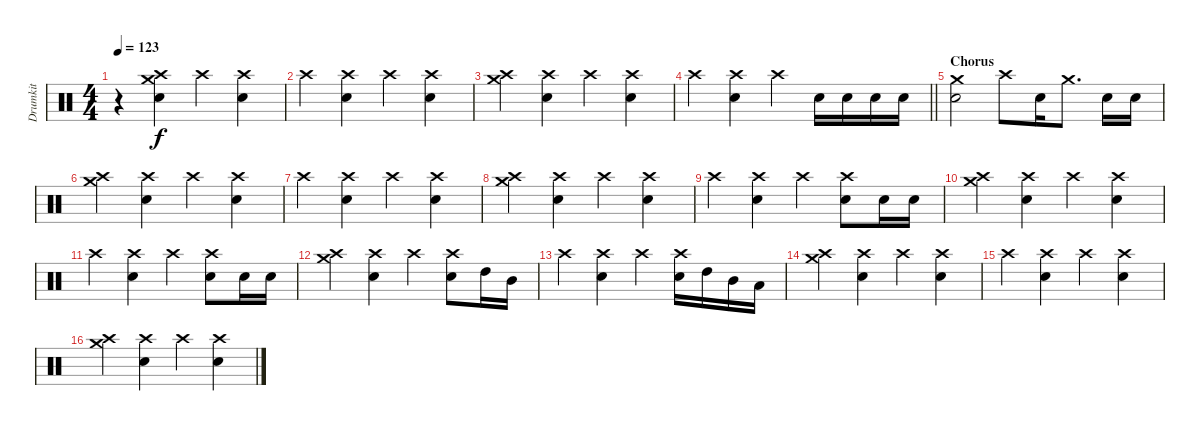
\track ("Drumkit" "Drumkit") {instrument percussion}
\staff {score}
\articulation defaults
\ts (4 4)
\tempo 123
\clef neutral
\ks c
r.4{dy f} ("Crash medium (hit)" "Crash high (hit)" "Electric Snare (hit)").4 "Crash high (hit)".4 ("Crash high (hit)" "Electric Snare (hit)").4 |
"Crash high (hit)".4 ("Crash high (hit)" "Electric Snare (hit)").4 "Crash high (hit)".4 ("Crash high (hit)" "Electric Snare (hit)").4 |
("Crash medium (hit)" "Crash high (hit)").4 ("Crash high (hit)" "Electric Snare (hit)").4 "Crash high (hit)".4 ("Crash high (hit)" "Electric Snare (hit)").4 |
\barLineRight lightlight "Crash high (hit)".4
("Crash high (hit)" "Electric Snare (hit)").4 "Crash high (hit)".4 "Electric Snare (hit)".16 "Electric Snare (hit)".16 "Electric Snare (hit)".16 "Electric Snare (hit)".16 |
\section ("" "Chorus")
("Crash medium (hit)" "Electric Snare (hit)").2 "Crash high (hit)".8 "Electric Snare (hit)".16 "Crash medium (hit)".8{d} "Electric Snare (hit)".16 "Electric Snare (hit)".16 |
("Crash medium (hit)" "Crash high (hit)").4 ("Crash high (hit)" "Electric Snare (hit)").4 "Crash high (hit)".4 ("Crash high (hit)" "Electric Snare (hit)").4 |
"Crash high (hit)".4 ("Crash high (hit)" "Electric Snare (hit)").4 "Crash high (hit)".4 ("Crash high (hit)" "Electric Snare (hit)").4 |
("Crash medium (hit)" "Crash high (hit)").4 ("Crash high (hit)" "Electric Snare (hit)").4 "Crash high (hit)".4 ("Crash high (hit)" "Electric Snare (hit)").4 |
"Crash high (hit)".4 ("Crash high (hit)" "Electric Snare (hit)").4 "Crash high (hit)".4 ("Crash high (hit)" "Electric Snare (hit)").8 "Electric Snare (hit)".16 "Electric Snare (hit)".16 |
("Crash medium (hit)" "Crash high (hit)").4 ("Crash high (hit)" "Electric Snare (hit)").4 "Crash high (hit)".4 ("Crash high (hit)" "Electric Snare (hit)").4 |
"Crash high (hit)".4 ("Crash high (hit)" "Electric Snare (hit)").4 "Crash high (hit)".4 ("Crash high (hit)" "Electric Snare (hit)").8 "Electric Snare (hit)".16 "Electric Snare (hit)".16 |
("Crash medium (hit)" "Crash high (hit)").4 ("Crash high (hit)" "Electric Snare (hit)").4 "Crash high (hit)".4 ("Crash high (hit)" "Electric Snare (hit)").8 "High Tom (hit)".16 "Mid Tom (hit)".16 |
"Crash high (hit)".4 ("Crash high (hit)" "Electric Snare (hit)").4 "Crash high (hit)".4 ("Crash high (hit)" "Electric Snare (hit)").16 "High Tom (hit)".16 "Mid Tom (hit)".16 "Low Tom (hit)".16 |
("Crash medium (hit)" "Crash high (hit)").4 ("Crash high (hit)" "Electric Snare (hit)").4 "Crash high (hit)".4 ("Crash high (hit)" "Electric Snare (hit)").4 |
"Crash high (hit)".4 ("Crash high (hit)" "Electric Snare (hit)").4 "Crash high (hit)".4 ("Crash high (hit)" "Electric Snare (hit)").4 |
("Crash medium (hit)" "Crash high (hit)").4 ("Crash high (hit)" "Electric Snare (hit)").4 "Crash high (hit)".4 ("Crash high (hit)" "Electric Snare (hit)").4
